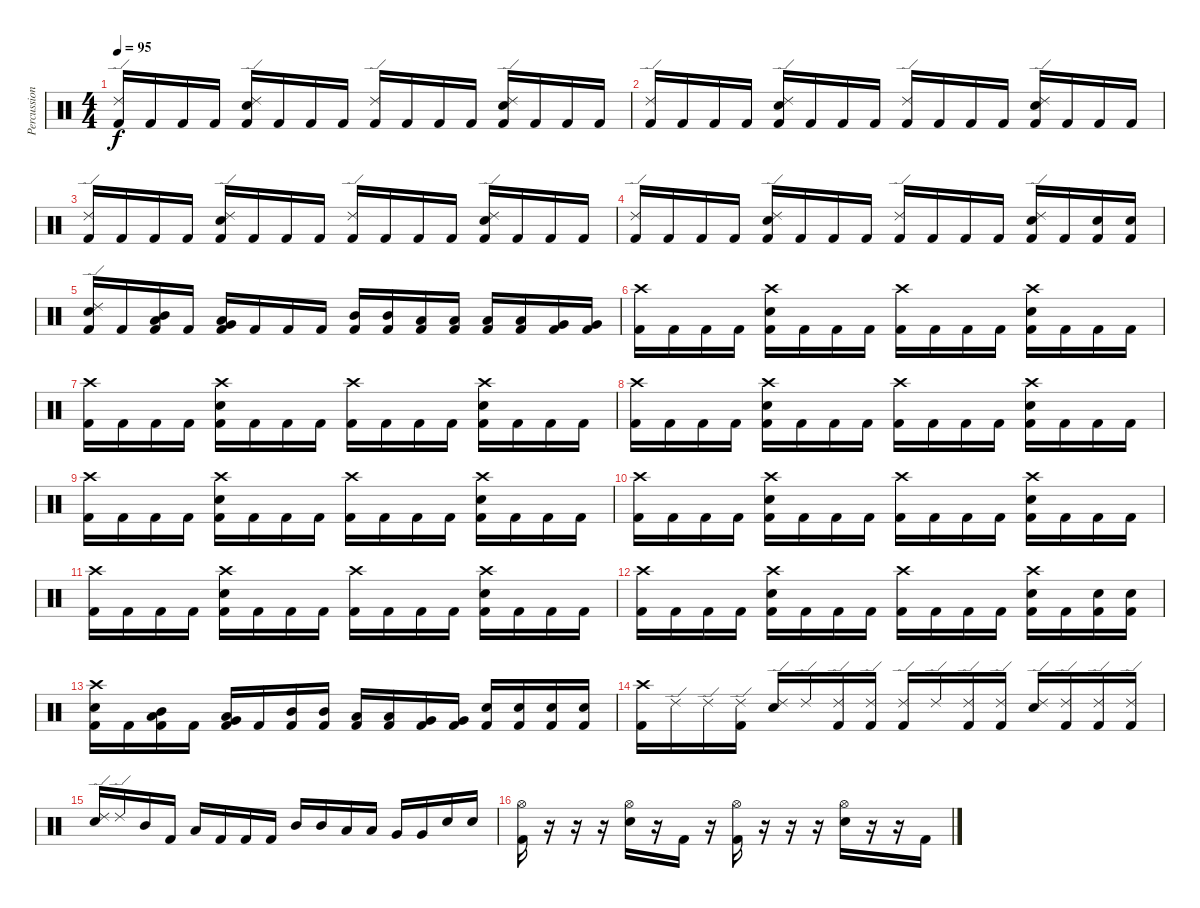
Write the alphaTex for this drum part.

\track ("Percussion" "Percussion") {instrument percussion}
\staff {score}
\articulation defaults
\ts (4 4)
\tempo 95
\clef neutral
\ks c
("Ride (edge) 2" "Kick (hit) 2").16{dy f} "Kick (hit) 2".16 "Kick (hit) 2".16 "Kick (hit) 2".16 ("Ride (edge) 2" "Snare (hit) 2" "Kick (hit) 2").16 "Kick (hit) 2".16 "Kick (hit) 2".16 "Kick (hit) 2".16 ("Ride (edge) 2" "Kick (hit) 2").16 "Kick (hit) 2".16 "Kick (hit) 2".16 "Kick (hit) 2".16 ("Ride (edge) 2" "Snare (hit) 2" "Kick (hit) 2").16 "Kick (hit) 2".16 "Kick (hit) 2".16 "Kick (hit) 2".16 |
("Ride (edge) 2" "Kick (hit) 2").16 "Kick (hit) 2".16 "Kick (hit) 2".16 "Kick (hit) 2".16 ("Ride (edge) 2" "Snare (hit) 2" "Kick (hit) 2").16 "Kick (hit) 2".16 "Kick (hit) 2".16 "Kick (hit) 2".16 ("Ride (edge) 2" "Kick (hit) 2").16 "Kick (hit) 2".16 "Kick (hit) 2".16 "Kick (hit) 2".16 ("Ride (edge) 2" "Snare (hit) 2" "Kick (hit) 2").16 "Kick (hit) 2".16 "Kick (hit) 2".16 "Kick (hit) 2".16 |
("Ride (edge) 2" "Kick (hit) 2").16 "Kick (hit) 2".16 "Kick (hit) 2".16 "Kick (hit) 2".16 ("Ride (edge) 2" "Snare (hit) 2" "Kick (hit) 2").16 "Kick (hit) 2".16 "Kick (hit) 2".16 "Kick (hit) 2".16 ("Ride (edge) 2" "Kick (hit) 2").16 "Kick (hit) 2".16 "Kick (hit) 2".16 "Kick (hit) 2".16 ("Ride (edge) 2" "Snare (hit) 2" "Kick (hit) 2").16 "Kick (hit) 2".16 "Kick (hit) 2".16 "Kick (hit) 2".16 |
("Ride (edge) 2" "Kick (hit) 2").16 "Kick (hit) 2".16 "Kick (hit) 2".16 "Kick (hit) 2".16 ("Ride (edge) 2" "Snare (hit) 2" "Kick (hit) 2").16 "Kick (hit) 2".16 "Kick (hit) 2".16 "Kick (hit) 2".16 ("Ride (edge) 2" "Kick (hit) 2").16 "Kick (hit) 2".16 "Kick (hit) 2".16 "Kick (hit) 2".16 ("Ride (edge) 2" "Snare (hit) 2" "Kick (hit) 2").16 "Kick (hit) 2".16 ("Snare (hit) 2" "Kick (hit) 2").16 ("Snare (hit) 2" "Kick (hit) 2").16 |
("Ride (edge) 2" "Snare (hit) 2" "Kick (hit) 2").16 "Kick (hit) 2".16 ("Mid Tom (hit)" "Low Tom (hit)" "Kick (hit) 2").16 "Kick (hit) 2".16 ("Low Tom (hit)" "Very Low Tom (hit)" "Kick (hit) 2").16 "Kick (hit) 2".16 "Kick (hit) 2".16 "Kick (hit) 2".16 ("Mid Tom (hit)" "Kick (hit) 2").16 ("Mid Tom (hit)" "Kick (hit) 2").16 ("Low Floor Tom (hit)" "Kick (hit) 2").16 ("Low Tom (hit)" "Kick (hit) 2").16 ("Low Tom (hit)" "Kick (hit) 2").16 ("Low Floor Tom (hit)" "Kick (hit) 2").16 ("Very Low Tom (hit)" "Kick (hit) 2").16 ("Very Low Tom (hit)" "Kick (hit) 2").16 |
("Crash high (hit)" "Kick (hit) 2").16 "Kick (hit) 2".16 "Kick (hit) 2".16 "Kick (hit) 2".16 ("Crash high (hit)" "Snare (hit) 2" "Kick (hit) 2").16 "Kick (hit) 2".16 "Kick (hit) 2".16 "Kick (hit) 2".16 ("Crash high (hit)" "Kick (hit) 2").16 "Kick (hit) 2".16 "Kick (hit) 2".16 "Kick (hit) 2".16 ("Crash high (hit)" "Snare (hit) 2" "Kick (hit) 2").16 "Kick (hit) 2".16 "Kick (hit) 2".16 "Kick (hit) 2".16 |
("Crash high (hit)" "Kick (hit) 2").16 "Kick (hit) 2".16 "Kick (hit) 2".16 "Kick (hit) 2".16 ("Crash high (hit)" "Snare (hit) 2" "Kick (hit) 2").16 "Kick (hit) 2".16 "Kick (hit) 2".16 "Kick (hit) 2".16 ("Crash high (hit)" "Kick (hit) 2").16 "Kick (hit) 2".16 "Kick (hit) 2".16 "Kick (hit) 2".16 ("Crash high (hit)" "Snare (hit) 2" "Kick (hit) 2").16 "Kick (hit) 2".16 "Kick (hit) 2".16 "Kick (hit) 2".16 |
("Crash high (hit)" "Kick (hit) 2").16 "Kick (hit) 2".16 "Kick (hit) 2".16 "Kick (hit) 2".16 ("Crash high (hit)" "Snare (hit) 2" "Kick (hit) 2").16 "Kick (hit) 2".16 "Kick (hit) 2".16 "Kick (hit) 2".16 ("Crash high (hit)" "Kick (hit) 2").16 "Kick (hit) 2".16 "Kick (hit) 2".16 "Kick (hit) 2".16 ("Crash high (hit)" "Snare (hit) 2" "Kick (hit) 2").16 "Kick (hit) 2".16 "Kick (hit) 2".16 "Kick (hit) 2".16 |
("Crash high (hit)" "Kick (hit) 2").16 "Kick (hit) 2".16 "Kick (hit) 2".16 "Kick (hit) 2".16 ("Crash high (hit)" "Snare (hit) 2" "Kick (hit) 2").16 "Kick (hit) 2".16 "Kick (hit) 2".16 "Kick (hit) 2".16 ("Crash high (hit)" "Kick (hit) 2").16 "Kick (hit) 2".16 "Kick (hit) 2".16 "Kick (hit) 2".16 ("Crash high (hit)" "Snare (hit) 2" "Kick (hit) 2").16 "Kick (hit) 2".16 "Kick (hit) 2".16 "Kick (hit) 2".16 |
("Crash high (hit)" "Kick (hit) 2").16 "Kick (hit) 2".16 "Kick (hit) 2".16 "Kick (hit) 2".16 ("Crash high (hit)" "Snare (hit) 2" "Kick (hit) 2").16 "Kick (hit) 2".16 "Kick (hit) 2".16 "Kick (hit) 2".16 ("Crash high (hit)" "Kick (hit) 2").16 "Kick (hit) 2".16 "Kick (hit) 2".16 "Kick (hit) 2".16 ("Crash high (hit)" "Snare (hit) 2" "Kick (hit) 2").16 "Kick (hit) 2".16 "Kick (hit) 2".16 "Kick (hit) 2".16 |
("Crash high (hit)" "Kick (hit) 2").16 "Kick (hit) 2".16 "Kick (hit) 2".16 "Kick (hit) 2".16 ("Crash high (hit)" "Snare (hit) 2" "Kick (hit) 2").16 "Kick (hit) 2".16 "Kick (hit) 2".16 "Kick (hit) 2".16 ("Crash high (hit)" "Kick (hit) 2").16 "Kick (hit) 2".16 "Kick (hit) 2".16 "Kick (hit) 2".16 ("Crash high (hit)" "Snare (hit) 2" "Kick (hit) 2").16 "Kick (hit) 2".16 "Kick (hit) 2".16 "Kick (hit) 2".16 |
("Crash high (hit)" "Kick (hit) 2").16 "Kick (hit) 2".16 "Kick (hit) 2".16 "Kick (hit) 2".16 ("Crash high (hit)" "Snare (hit) 2" "Kick (hit) 2").16 "Kick (hit) 2".16 "Kick (hit) 2".16 "Kick (hit) 2".16 ("Crash high (hit)" "Kick (hit) 2").16 "Kick (hit) 2".16 "Kick (hit) 2".16 "Kick (hit) 2".16 ("Crash high (hit)" "Snare (hit) 2" "Kick (hit) 2").16 "Kick (hit) 2".16 ("Snare (hit) 2" "Kick (hit) 2").16 ("Snare (hit) 2" "Kick (hit) 2").16 |
("Crash high (hit)" "Snare (hit) 2" "Kick (hit) 2").16 "Kick (hit) 2".16 ("Mid Tom (hit)" "Low Tom (hit)" "Kick (hit) 2").16 "Kick (hit) 2".16 ("Low Tom (hit)" "Very Low Tom (hit)" "Kick (hit) 2").16 "Kick (hit) 2".16 ("Mid Tom (hit)" "Kick (hit) 2").16 ("Mid Tom (hit)" "Kick (hit) 2").16 ("Low Tom (hit)" "Kick (hit) 2").16 ("Low Tom (hit)" "Kick (hit) 2").16 ("Very Low Tom (hit)" "Kick (hit) 2").16 ("Very Low Tom (hit)" "Kick (hit) 2").16 ("Snare (hit) 2" "Kick (hit) 2").16 ("Snare (hit) 2" "Kick (hit) 2").16 ("Snare (hit) 2" "Kick (hit) 2").16 ("Snare (hit) 2" "Kick (hit) 2").16 |
("Crash high (hit)" "Kick (hit) 2").16 "Ride (edge) 2".16 "Ride (edge) 2".16 ("Ride (edge) 2" "Kick (hit) 2").16 ("Ride (edge) 2" "Snare (hit) 2").16 "Ride (edge) 2".16 ("Ride (edge) 2" "Kick (hit) 2").16 ("Ride (edge) 2" "Kick (hit) 2").16 ("Ride (edge) 2" "Kick (hit) 2").16 "Ride (edge) 2".16 ("Ride (edge) 2" "Kick (hit) 2").16 ("Ride (edge) 2" "Kick (hit) 2").16 ("Ride (edge) 2" "Snare (hit) 2").16 ("Ride (edge) 2" "Kick (hit) 2").16 ("Ride (edge) 2" "Kick (hit) 2").16 ("Ride (edge) 2" "Kick (hit) 2").16 |
("Ride (edge) 2" "Snare (hit) 2").16 "Ride (edge) 2".16 "Mid Tom (hit)".16 "Kick (hit) 2".16 "Low Tom (hit)".16 "Kick (hit) 2".16 "Kick (hit) 2".16 "Kick (hit) 2".16 "Mid Tom (hit)".16 "Mid Tom (hit)".16 "Low Tom (hit)".16 "Low Tom (hit)".16 "Very Low Tom (hit)".16 "Very Low Tom (hit)".16 "Snare (hit) 2".16 "Snare (hit) 2".16 |
("Hi-Hat (open)" "Kick (hit) 2").16 r.16 r.16 r.16 ("Hi-Hat (open)" "Snare (hit) 2").16 r.16 "Kick (hit) 2".16 r.16 ("Hi-Hat (open)" "Kick (hit) 2").16 r.16 r.16 r.16 ("Hi-Hat (open)" "Snare (hit) 2").16 r.16 r.16 "Kick (hit) 2".16
